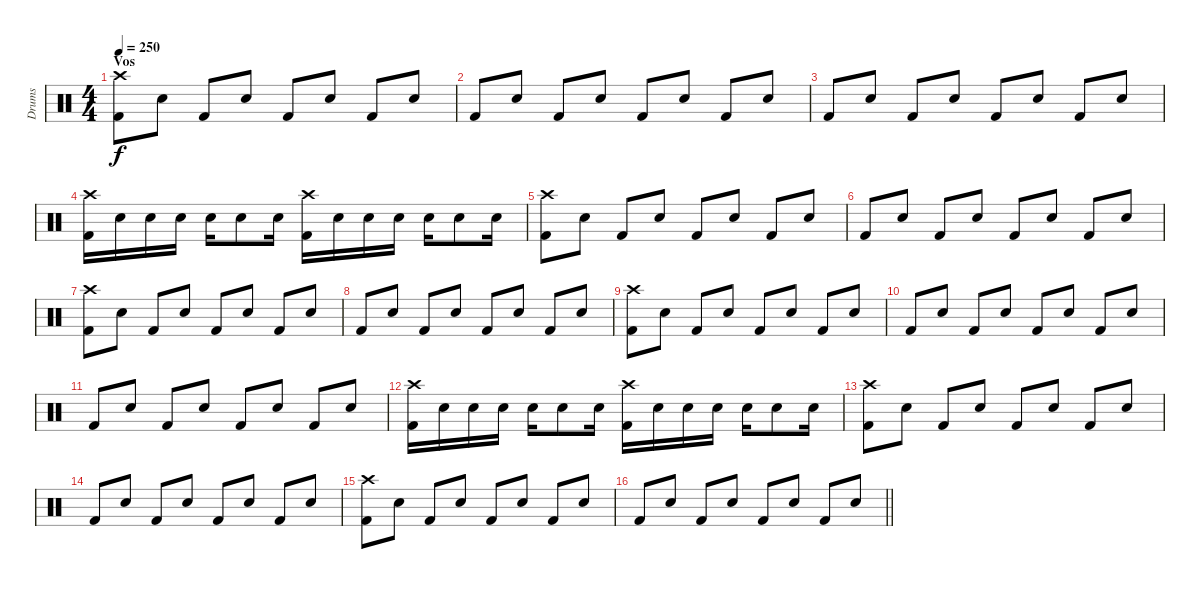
\track ("Drums" "Drums") {instrument percussion}
\staff {score}
\articulation defaults
\ts (4 4)
\section ("" "Vos")
\tempo 250
\clef neutral
\ks c
("Crash high (hit)" "Kick (hit) 2").8{dy f} "Snare (hit) 2".8 "Kick (hit) 2".8 "Snare (hit) 2".8 "Kick (hit) 2".8 "Snare (hit) 2".8 "Kick (hit) 2".8 "Snare (hit) 2".8 |
"Kick (hit) 2".8 "Snare (hit) 2".8 "Kick (hit) 2".8 "Snare (hit) 2".8 "Kick (hit) 2".8 "Snare (hit) 2".8 "Kick (hit) 2".8 "Snare (hit) 2".8 |
"Kick (hit) 2".8 "Snare (hit) 2".8 "Kick (hit) 2".8 "Snare (hit) 2".8 "Kick (hit) 2".8 "Snare (hit) 2".8 "Kick (hit) 2".8 "Snare (hit) 2".8 |
("Crash high (hit)" "Kick (hit) 2").16 "Snare (hit) 2".16 "Snare (hit) 2".16 "Snare (hit) 2".16 "Snare (hit) 2".16 "Snare (hit) 2".8 "Snare (hit) 2".16 ("Crash high (hit)" "Kick (hit) 2").16 "Snare (hit) 2".16 "Snare (hit) 2".16 "Snare (hit) 2".16 "Snare (hit) 2".16 "Snare (hit) 2".8 "Snare (hit) 2".16 |
("Crash high (hit)" "Kick (hit) 2").8 "Snare (hit) 2".8 "Kick (hit) 2".8 "Snare (hit) 2".8 "Kick (hit) 2".8 "Snare (hit) 2".8 "Kick (hit) 2".8 "Snare (hit) 2".8 |
"Kick (hit) 2".8 "Snare (hit) 2".8 "Kick (hit) 2".8 "Snare (hit) 2".8 "Kick (hit) 2".8 "Snare (hit) 2".8 "Kick (hit) 2".8 "Snare (hit) 2".8 |
("Crash high (hit)" "Kick (hit) 2").8 "Snare (hit) 2".8 "Kick (hit) 2".8 "Snare (hit) 2".8 "Kick (hit) 2".8 "Snare (hit) 2".8 "Kick (hit) 2".8 "Snare (hit) 2".8 |
"Kick (hit) 2".8 "Snare (hit) 2".8 "Kick (hit) 2".8 "Snare (hit) 2".8 "Kick (hit) 2".8 "Snare (hit) 2".8 "Kick (hit) 2".8 "Snare (hit) 2".8 |
("Crash high (hit)" "Kick (hit) 2").8 "Snare (hit) 2".8 "Kick (hit) 2".8 "Snare (hit) 2".8 "Kick (hit) 2".8 "Snare (hit) 2".8 "Kick (hit) 2".8 "Snare (hit) 2".8 |
"Kick (hit) 2".8 "Snare (hit) 2".8 "Kick (hit) 2".8 "Snare (hit) 2".8 "Kick (hit) 2".8 "Snare (hit) 2".8 "Kick (hit) 2".8 "Snare (hit) 2".8 |
"Kick (hit) 2".8 "Snare (hit) 2".8 "Kick (hit) 2".8 "Snare (hit) 2".8 "Kick (hit) 2".8 "Snare (hit) 2".8 "Kick (hit) 2".8 "Snare (hit) 2".8 |
("Crash high (hit)" "Kick (hit) 2").16 "Snare (hit) 2".16 "Snare (hit) 2".16 "Snare (hit) 2".16 "Snare (hit) 2".16 "Snare (hit) 2".8 "Snare (hit) 2".16 ("Crash high (hit)" "Kick (hit) 2").16 "Snare (hit) 2".16 "Snare (hit) 2".16 "Snare (hit) 2".16 "Snare (hit) 2".16 "Snare (hit) 2".8 "Snare (hit) 2".16 |
("Crash high (hit)" "Kick (hit) 2").8 "Snare (hit) 2".8 "Kick (hit) 2".8 "Snare (hit) 2".8 "Kick (hit) 2".8 "Snare (hit) 2".8 "Kick (hit) 2".8 "Snare (hit) 2".8 |
"Kick (hit) 2".8 "Snare (hit) 2".8 "Kick (hit) 2".8 "Snare (hit) 2".8 "Kick (hit) 2".8 "Snare (hit) 2".8 "Kick (hit) 2".8 "Snare (hit) 2".8 |
("Crash high (hit)" "Kick (hit) 2").8 "Snare (hit) 2".8 "Kick (hit) 2".8 "Snare (hit) 2".8 "Kick (hit) 2".8 "Snare (hit) 2".8 "Kick (hit) 2".8 "Snare (hit) 2".8 |
\barLineRight lightlight "Kick (hit) 2".8 "Snare (hit) 2".8 "Kick (hit) 2".8 "Snare (hit) 2".8 "Kick (hit) 2".8 "Snare (hit) 2".8 "Kick (hit) 2".8 "Snare (hit) 2".8
